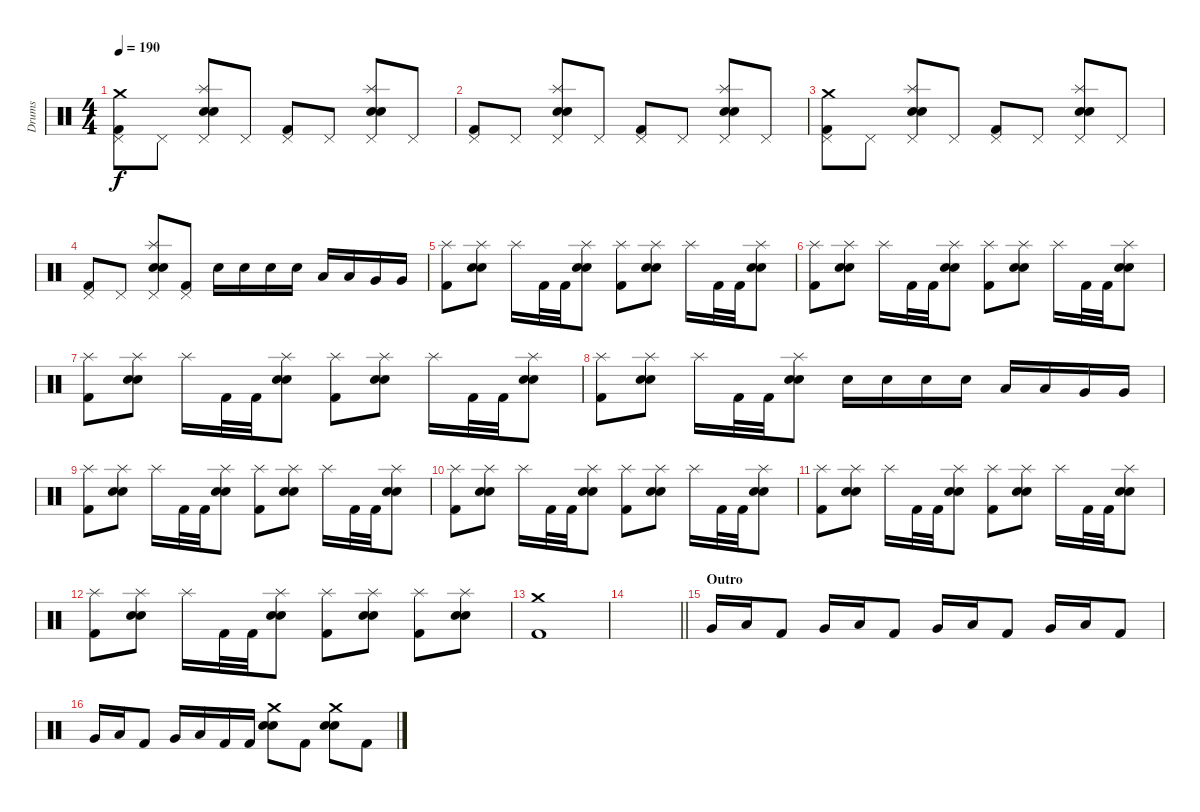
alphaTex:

\track ("Drums" "Drums") {instrument percussion}
\staff {score}
\articulation defaults
\ts (4 4)
\tempo 190
\clef neutral
\ks c
("Crash medium (hit)" "Pedal Hi-Hat (hit)" "Kick (hit) 2").8{dy f} "Pedal Hi-Hat (hit)".8 ("Splash (hit)" "Pedal Hi-Hat (hit)" "Electric Snare (hit)" "Snare (hit) 2").8 "Pedal Hi-Hat (hit)".8 ("Pedal Hi-Hat (hit)" "Kick (hit) 2").8 "Pedal Hi-Hat (hit)".8 ("Splash (hit)" "Pedal Hi-Hat (hit)" "Electric Snare (hit)" "Snare (hit) 2").8 "Pedal Hi-Hat (hit)".8 |
("Pedal Hi-Hat (hit)" "Kick (hit) 2").8 "Pedal Hi-Hat (hit)".8 ("Splash (hit)" "Pedal Hi-Hat (hit)" "Electric Snare (hit)" "Snare (hit) 2").8 "Pedal Hi-Hat (hit)".8 ("Pedal Hi-Hat (hit)" "Kick (hit) 2").8 "Pedal Hi-Hat (hit)".8 ("Splash (hit)" "Pedal Hi-Hat (hit)" "Electric Snare (hit)" "Snare (hit) 2").8 "Pedal Hi-Hat (hit)".8 |
("Crash medium (hit)" "Pedal Hi-Hat (hit)" "Kick (hit) 2").8 "Pedal Hi-Hat (hit)".8 ("Splash (hit)" "Pedal Hi-Hat (hit)" "Electric Snare (hit)" "Snare (hit) 2").8 "Pedal Hi-Hat (hit)".8 ("Pedal Hi-Hat (hit)" "Kick (hit) 2").8 "Pedal Hi-Hat (hit)".8 ("Splash (hit)" "Pedal Hi-Hat (hit)" "Electric Snare (hit)" "Snare (hit) 2").8 "Pedal Hi-Hat (hit)".8 |
("Pedal Hi-Hat (hit)" "Kick (hit) 2").8 "Pedal Hi-Hat (hit)".8 ("Splash (hit)" "Pedal Hi-Hat (hit)" "Electric Snare (hit)" "Snare (hit) 2").8 ("Pedal Hi-Hat (hit)" "Kick (hit) 2").8 "Electric Snare (hit)".16 "Electric Snare (hit)".16 "Electric Snare (hit)".16 "Electric Snare (hit)".16 "Low Tom (hit)".16 "Low Tom (hit)".16 "Very Low Tom (hit)".16 "Very Low Tom (hit)".16 |
("Splash (hit)" "Kick (hit) 2").8 ("Splash (hit)" "Electric Snare (hit)" "Snare (hit) 2").8 "Splash (hit)".16 "Kick (hit) 2".32 "Kick (hit) 2".32 ("Splash (hit)" "Electric Snare (hit)" "Snare (hit) 2").8 ("Splash (hit)" "Kick (hit) 2").8 ("Splash (hit)" "Electric Snare (hit)" "Snare (hit) 2").8 "Splash (hit)".16 "Kick (hit) 2".32 "Kick (hit) 2".32 ("Splash (hit)" "Electric Snare (hit)" "Snare (hit) 2").8 |
("Splash (hit)" "Kick (hit) 2").8 ("Splash (hit)" "Electric Snare (hit)" "Snare (hit) 2").8 "Splash (hit)".16 "Kick (hit) 2".32 "Kick (hit) 2".32 ("Splash (hit)" "Electric Snare (hit)" "Snare (hit) 2").8 ("Splash (hit)" "Kick (hit) 2").8 ("Splash (hit)" "Electric Snare (hit)" "Snare (hit) 2").8 "Splash (hit)".16 "Kick (hit) 2".32 "Kick (hit) 2".32 ("Splash (hit)" "Electric Snare (hit)" "Snare (hit) 2").8 |
("Splash (hit)" "Kick (hit) 2").8 ("Splash (hit)" "Electric Snare (hit)" "Snare (hit) 2").8 "Splash (hit)".16 "Kick (hit) 2".32 "Kick (hit) 2".32 ("Splash (hit)" "Electric Snare (hit)" "Snare (hit) 2").8 ("Splash (hit)" "Kick (hit) 2").8 ("Splash (hit)" "Electric Snare (hit)" "Snare (hit) 2").8 "Splash (hit)".16 "Kick (hit) 2".32 "Kick (hit) 2".32 ("Splash (hit)" "Electric Snare (hit)" "Snare (hit) 2").8 |
("Splash (hit)" "Kick (hit) 2").8 ("Splash (hit)" "Electric Snare (hit)" "Snare (hit) 2").8 "Splash (hit)".16 "Kick (hit) 2".32 "Kick (hit) 2".32 ("Splash (hit)" "Electric Snare (hit)" "Snare (hit) 2").8 "Electric Snare (hit)".16 "Electric Snare (hit)".16 "Electric Snare (hit)".16 "Electric Snare (hit)".16 "Low Tom (hit)".16 "Low Tom (hit)".16 "Very Low Tom (hit)".16 "Very Low Tom (hit)".16 |
("Splash (hit)" "Kick (hit) 2").8 ("Splash (hit)" "Electric Snare (hit)" "Snare (hit) 2").8 "Splash (hit)".16 "Kick (hit) 2".32 "Kick (hit) 2".32 ("Splash (hit)" "Electric Snare (hit)" "Snare (hit) 2").8 ("Splash (hit)" "Kick (hit) 2").8 ("Splash (hit)" "Electric Snare (hit)" "Snare (hit) 2").8 "Splash (hit)".16 "Kick (hit) 2".32 "Kick (hit) 2".32 ("Splash (hit)" "Electric Snare (hit)" "Snare (hit) 2").8 |
("Splash (hit)" "Kick (hit) 2").8 ("Splash (hit)" "Electric Snare (hit)" "Snare (hit) 2").8 "Splash (hit)".16 "Kick (hit) 2".32 "Kick (hit) 2".32 ("Splash (hit)" "Electric Snare (hit)" "Snare (hit) 2").8 ("Splash (hit)" "Kick (hit) 2").8 ("Splash (hit)" "Electric Snare (hit)" "Snare (hit) 2").8 "Splash (hit)".16 "Kick (hit) 2".32 "Kick (hit) 2".32 ("Splash (hit)" "Electric Snare (hit)" "Snare (hit) 2").8 |
("Splash (hit)" "Kick (hit) 2").8 ("Splash (hit)" "Electric Snare (hit)" "Snare (hit) 2").8 "Splash (hit)".16 "Kick (hit) 2".32 "Kick (hit) 2".32 ("Splash (hit)" "Electric Snare (hit)" "Snare (hit) 2").8 ("Splash (hit)" "Kick (hit) 2").8 ("Splash (hit)" "Electric Snare (hit)" "Snare (hit) 2").8 "Splash (hit)".16 "Kick (hit) 2".32 "Kick (hit) 2".32 ("Splash (hit)" "Electric Snare (hit)" "Snare (hit) 2").8 |
("Splash (hit)" "Kick (hit) 2").8 ("Splash (hit)" "Electric Snare (hit)" "Snare (hit) 2").8 "Splash (hit)".16 "Kick (hit) 2".32 "Kick (hit) 2".32 ("Splash (hit)" "Electric Snare (hit)" "Snare (hit) 2").8 ("Splash (hit)" "Kick (hit) 2").8 ("Splash (hit)" "Electric Snare (hit)" "Snare (hit) 2").8 ("Splash (hit)" "Kick (hit) 2").8 ("Splash (hit)" "Electric Snare (hit)" "Snare (hit) 2").8 |
("Crash medium (hit)" "Kick (hit) 2").1 |
\barLineRight lightlight
|
\section ("" "Outro")
"Very Low Tom (hit)".16 "Low Tom (hit)".16 "Kick (hit) 2".8 "Very Low Tom (hit)".16 "Low Tom (hit)".16 "Kick (hit) 2".8 "Very Low Tom (hit)".16 "Low Tom (hit)".16 "Kick (hit) 2".8 "Very Low Tom (hit)".16 "Low Tom (hit)".16 "Kick (hit) 2".8 |
"Very Low Tom (hit)".16 "Low Tom (hit)".16 "Kick (hit) 2".8 "Very Low Tom (hit)".16 "Low Tom (hit)".16 "Kick (hit) 2".16 "Kick (hit) 2".16 ("Crash medium (hit)" "Electric Snare (hit)" "Snare (hit) 2").8 "Kick (hit) 2".8 ("Crash medium (hit)" "Electric Snare (hit)" "Snare (hit) 2").8 "Kick (hit) 2".8
